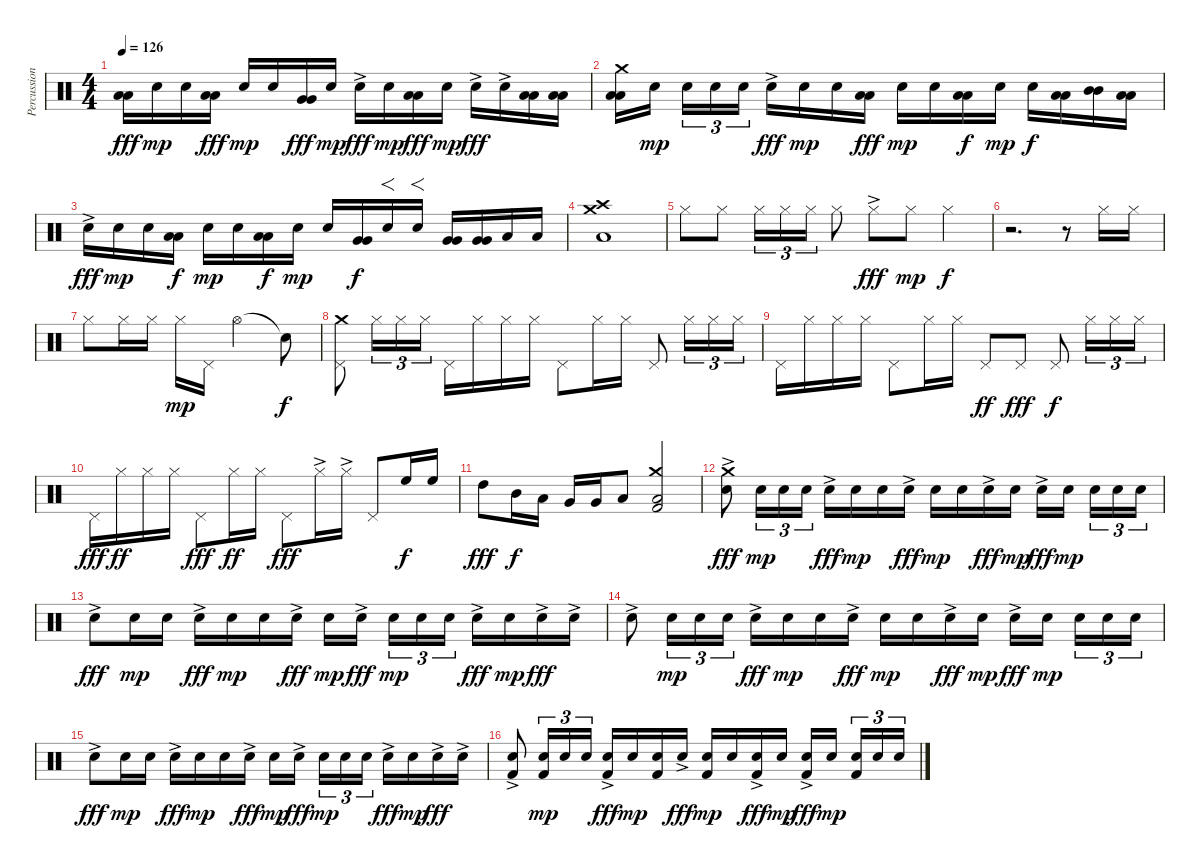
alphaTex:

\track ("Percussion" "Percussion") {instrument percussion}
\staff {score}
\articulation defaults
\ts (4 4)
\tempo 126
\clef neutral
\ks c
("Low Tom (hit)" "Low Tom (hit)").16{dy fff} "Electric Snare (hit)".16{dy mp} "Electric Snare (hit)".16 ("Low Tom (hit)" "Low Tom (hit)").16{dy fff} "Electric Snare (hit)".16{dy mp} "Electric Snare (hit)".16 ("Very Low Tom (hit)" "Very Low Tom (hit)").16{dy fff} "Electric Snare (hit)".16{dy mp} "Electric Snare (hit)"{ac}.16{dy fff} "Electric Snare (hit)".16{dy mp} ("Low Tom (hit)" "Low Tom (hit)").16{dy fff} "Electric Snare (hit)".16{dy mp} "Electric Snare (hit)"{ac}.16{dy fff} "Electric Snare (hit)"{ac}.16 ("Low Tom (hit)" "Low Tom (hit)").16 ("Low Tom (hit)" "Low Tom (hit)").16 |
("Low Tom (hit)" "Low Tom (hit)" "Crash medium (hit)").16 "Electric Snare (hit)".16{dy mp beam splitsecondary} "Electric Snare (hit)".16{tu (3 2)} "Electric Snare (hit)".16{tu (3 2)} "Electric Snare (hit)".16{tu (3 2)} "Electric Snare (hit)"{ac}.16{dy fff} "Electric Snare (hit)".16{dy mp} "Electric Snare (hit)".16 ("Low Tom (hit)" "Low Tom (hit)").16{dy fff} "Electric Snare (hit)".16{dy mp} "Electric Snare (hit)".16 ("Low Floor Tom (hit)" "Low Floor Tom (hit)").16{dy f} "Electric Snare (hit)".16{dy mp} "Electric Snare (hit)".16{dy f} ("Low Tom (hit)" "Low Tom (hit)").16 ("Mid Tom (hit)" "Mid Tom (hit)").16 ("Low Tom (hit)" "Low Tom (hit)").16 |
"Electric Snare (hit)"{ac}.16{dy fff} "Electric Snare (hit)".16{dy mp} "Electric Snare (hit)".16 ("Low Tom (hit)" "Low Tom (hit)").16{dy f} "Electric Snare (hit)".16{dy mp} "Electric Snare (hit)".16 ("Low Tom (hit)" "Low Tom (hit)").16{dy f} "Electric Snare (hit)".16{dy mp} "Electric Snare (hit)".16 ("Very Low Tom (hit)" "Very Low Tom (hit)").16{dy f} "Electric Snare (hit)".16{f} "Electric Snare (hit)".16{f} ("Very Low Tom (hit)" "Very Low Tom (hit)").16 ("Very Low Tom (hit)" "Very Low Tom (hit)").16 "Low Floor Tom (hit)".16 "Low Floor Tom (hit)".16 |
("Crash medium (hit)" "Crash high (hit)" "Low Floor Tom (hit)").1 |
"Hi-Hat (closed)".8 "Hi-Hat (closed)".8 "Hi-Hat (closed)".16{tu (3 2)} "Hi-Hat (closed)".16{tu (3 2)} "Hi-Hat (closed)".16{tu (3 2)} "Hi-Hat (closed)".8 "Hi-Hat (closed)"{ac}.8{dy fff} "Hi-Hat (closed)".8{dy mp} "Hi-Hat (closed)".4{dy f} |
r.2{d} r.8 "Hi-Hat (closed)".16 "Hi-Hat (closed)".16 |
"Hi-Hat (closed)".8 "Hi-Hat (closed)".16 "Hi-Hat (closed)".16 "Hi-Hat (closed)".16{dy mp} "Pedal Hi-Hat (hit)".16 "Hi-Hat (open)".2 "Snare (hit)"{t}.8{dy f} |
("Crash medium (hit)" "Pedal Hi-Hat (hit)").8 "Hi-Hat (closed)".16{tu (3 2)} "Hi-Hat (closed)".16{tu (3 2)} "Hi-Hat (closed)".16{tu (3 2)} "Pedal Hi-Hat (hit)".16 "Hi-Hat (closed)".16 "Hi-Hat (closed)".16 "Hi-Hat (closed)".16 "Pedal Hi-Hat (hit)".8 "Hi-Hat (closed)".16 "Hi-Hat (closed)".16 "Pedal Hi-Hat (hit)".8 "Hi-Hat (closed)".16{tu (3 2)} "Hi-Hat (closed)".16{tu (3 2)} "Hi-Hat (closed)".16{tu (3 2)} |
"Pedal Hi-Hat (hit)".16 "Hi-Hat (closed)".16 "Hi-Hat (closed)".16 "Hi-Hat (closed)".16 "Pedal Hi-Hat (hit)".8 "Hi-Hat (closed)".16 "Hi-Hat (closed)".16 "Pedal Hi-Hat (hit)".8{dy ff} "Pedal Hi-Hat (hit)".8{dy fff} "Pedal Hi-Hat (hit)".8{dy f} "Hi-Hat (closed)".16{tu (3 2)} "Hi-Hat (closed)".16{tu (3 2)} "Hi-Hat (closed)".16{tu (3 2)} |
"Pedal Hi-Hat (hit)".16{dy fff} "Hi-Hat (closed)".16{dy ff} "Hi-Hat (closed)".16 "Hi-Hat (closed)".16 "Pedal Hi-Hat (hit)".8{dy fff} "Hi-Hat (closed)".16{dy ff} "Hi-Hat (closed)".16 "Pedal Hi-Hat (hit)".8{dy fff} "Hi-Hat (closed)"{ac}.16 "Hi-Hat (closed)"{ac}.16 "Pedal Hi-Hat (hit)".8 "High Floor Tom (hit)".16{dy f} "High Floor Tom (hit)".16 |
"High Tom (hit)".8{dy fff} "Mid Tom (hit)".16{dy f} "Low Tom (hit)".16 "Very Low Tom (hit)".16 "Very Low Tom (hit)".16 "Low Floor Tom (hit)".8 ("Crash medium (hit)" "Low Tom (hit)" "Kick (hit) 2").2 |
("Crash medium (hit)" "Electric Snare (hit)"{ac}).8{dy fff} "Electric Snare (hit)".16{tu (3 2) dy mp} "Electric Snare (hit)".16{tu (3 2)} "Electric Snare (hit)".16{tu (3 2)} "Electric Snare (hit)"{ac}.16{dy fff} "Electric Snare (hit)".16{dy mp} "Electric Snare (hit)".16 "Electric Snare (hit)"{ac}.16{dy fff} "Electric Snare (hit)".16{dy mp} "Electric Snare (hit)".16 "Electric Snare (hit)"{ac}.16{dy fff} "Electric Snare (hit)".16{dy mp} "Electric Snare (hit)"{ac}.16{dy fff} "Electric Snare (hit)".16{dy mp beam splitsecondary} "Electric Snare (hit)".16{tu (3 2)} "Electric Snare (hit)".16{tu (3 2)} "Electric Snare (hit)".16{tu (3 2)} |
"Electric Snare (hit)"{ac}.8{dy fff} "Electric Snare (hit)".16{dy mp} "Electric Snare (hit)".16 "Electric Snare (hit)"{ac}.16{dy fff} "Electric Snare (hit)".16{dy mp} "Electric Snare (hit)".16 "Electric Snare (hit)"{ac}.16{dy fff} "Electric Snare (hit)".16{dy mp} "Electric Snare (hit)"{ac}.16{dy fff beam splitsecondary} "Electric Snare (hit)".16{tu (3 2) dy mp} "Electric Snare (hit)".16{tu (3 2)} "Electric Snare (hit)".16{tu (3 2)} "Electric Snare (hit)"{ac}.16{dy fff} "Electric Snare (hit)".16{dy mp} "Electric Snare (hit)"{ac}.16{dy fff} "Electric Snare (hit)"{ac}.16 |
"Electric Snare (hit)"{ac}.8 "Electric Snare (hit)".16{tu (3 2) dy mp} "Electric Snare (hit)".16{tu (3 2)} "Electric Snare (hit)".16{tu (3 2)} "Electric Snare (hit)"{ac}.16{dy fff} "Electric Snare (hit)".16{dy mp} "Electric Snare (hit)".16 "Electric Snare (hit)"{ac}.16{dy fff} "Electric Snare (hit)".16{dy mp} "Electric Snare (hit)".16 "Electric Snare (hit)"{ac}.16{dy fff} "Electric Snare (hit)".16{dy mp} "Electric Snare (hit)"{ac}.16{dy fff} "Electric Snare (hit)".16{dy mp beam splitsecondary} "Electric Snare (hit)".16{tu (3 2)} "Electric Snare (hit)".16{tu (3 2)} "Electric Snare (hit)".16{tu (3 2)} |
"Electric Snare (hit)"{ac}.8{dy fff} "Electric Snare (hit)".16{dy mp} "Electric Snare (hit)".16 "Electric Snare (hit)"{ac}.16{dy fff} "Electric Snare (hit)".16{dy mp} "Electric Snare (hit)".16 "Electric Snare (hit)"{ac}.16{dy fff} "Electric Snare (hit)".16{dy mp} "Electric Snare (hit)"{ac}.16{dy fff beam splitsecondary} "Electric Snare (hit)".16{tu (3 2) dy mp} "Electric Snare (hit)".16{tu (3 2)} "Electric Snare (hit)".16{tu (3 2)} "Electric Snare (hit)"{ac}.16{dy fff} "Electric Snare (hit)".16{dy mp} "Electric Snare (hit)"{ac}.16{dy fff} "Electric Snare (hit)"{ac}.16 |
("Electric Snare (hit)"{ac} "Kick (hit) 2").8 ("Electric Snare (hit)" "Kick (hit) 2").16{tu (3 2) dy mp} "Electric Snare (hit)".16{tu (3 2)} "Electric Snare (hit)".16{tu (3 2)} ("Electric Snare (hit)"{ac} "Kick (hit) 2").16{dy fff} "Electric Snare (hit)".16{dy mp} ("Electric Snare (hit)" "Kick (hit) 2").16 "Electric Snare (hit)"{ac}.16{dy fff} ("Electric Snare (hit)" "Kick (hit) 2").16{dy mp} "Electric Snare (hit)".16 ("Electric Snare (hit)"{ac} "Kick (hit) 2").16{dy fff} "Electric Snare (hit)".16{dy mp} ("Electric Snare (hit)"{ac} "Kick (hit) 2").16{dy fff} "Electric Snare (hit)".16{dy mp beam splitsecondary} ("Electric Snare (hit)" "Kick (hit) 2").16{tu (3 2)} "Electric Snare (hit)".16{tu (3 2)} "Electric Snare (hit)".16{tu (3 2)}
